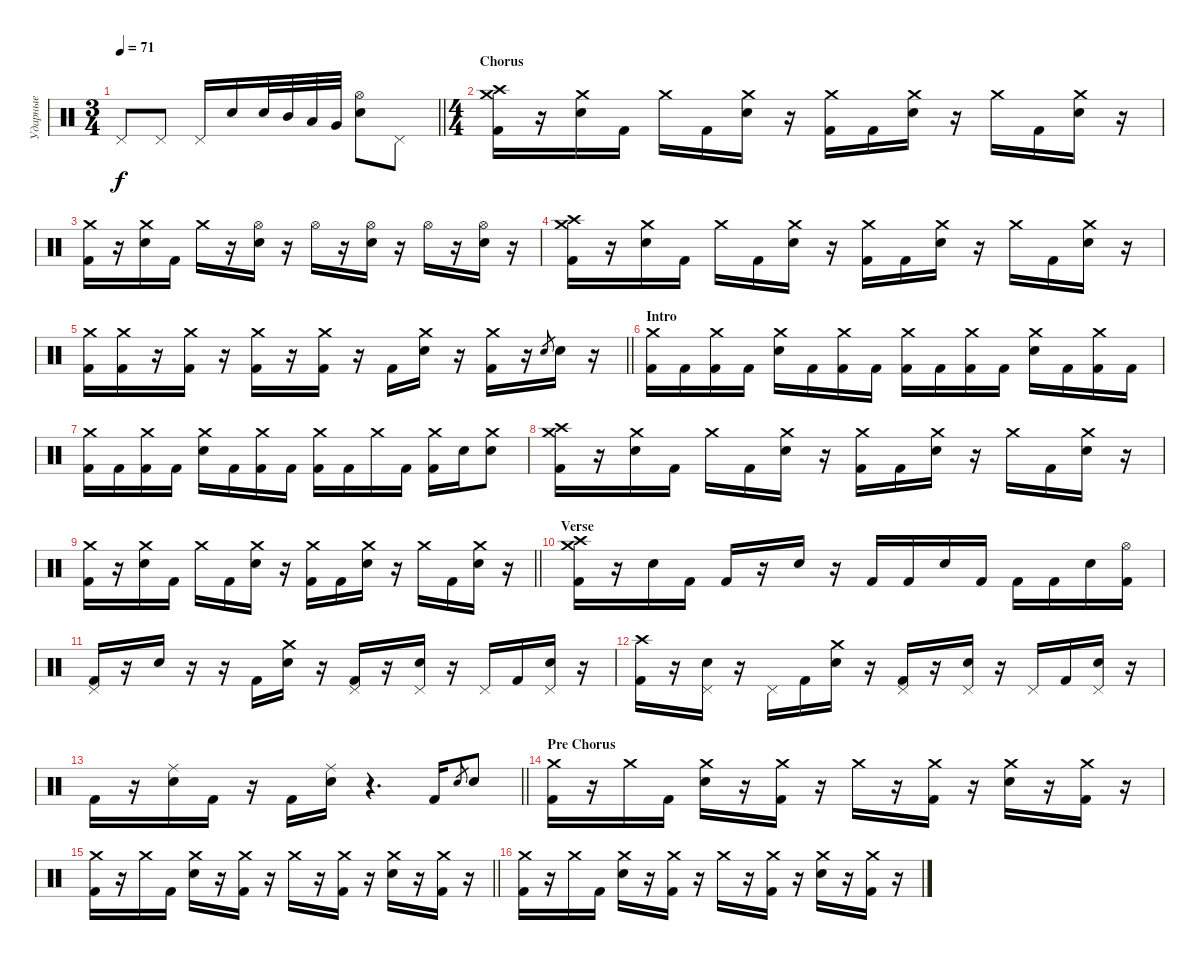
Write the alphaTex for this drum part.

\track ("Ударные" "Ударные") {instrument percussion}
\staff {score}
\articulation defaults
\ts (3 4)
\tempo 71
\clef neutral
\barLineRight lightlight
\ks c "Pedal Hi-Hat (hit)".8{dy f} "Pedal Hi-Hat (hit)".8 "Pedal Hi-Hat (hit)".16 "Electric Snare (hit)".16 "Electric Snare (hit)".32 "Mid Tom (hit)".32 "Low Tom (hit)".32 "Very Low Tom (hit)".32
("Hi-Hat (open)" "Electric Snare (hit)").8 "Pedal Hi-Hat (hit)".8 |
\ts (4 4)
\section ("" "Chorus")
("Crash medium (hit)" "Crash high (hit)" "Kick (hit) 2").16 r.16 ("Crash medium (hit)" "Electric Snare (hit)").16 "Kick (hit) 2".16 "Crash medium (hit)".16 "Kick (hit) 2".16 ("Crash medium (hit)" "Electric Snare (hit)").16 r.16 ("Crash medium (hit)" "Kick (hit) 2").16 "Kick (hit) 2".16 ("Crash medium (hit)" "Electric Snare (hit)").16 r.16 "Crash medium (hit)".16 "Kick (hit) 2".16 ("Crash medium (hit)" "Electric Snare (hit)").16 r.16 |
("Crash medium (hit)" "Kick (hit) 2").16 r.16 ("Crash medium (hit)" "Electric Snare (hit)").16 "Kick (hit) 2".16 "Crash medium (hit)".16 r.16 ("Hi-Hat (open)" "Electric Snare (hit)").16 r.16 "Hi-Hat (open)".16 r.16 ("Hi-Hat (open)" "Electric Snare (hit)").16 r.16 "Hi-Hat (open)".16 r.16 ("Hi-Hat (open)" "Electric Snare (hit)").16 r.16 |
("Crash medium (hit)" "Crash high (hit)" "Kick (hit) 2").16 r.16 ("Crash medium (hit)" "Electric Snare (hit)").16 "Kick (hit) 2".16 "Crash medium (hit)".16 "Kick (hit) 2".16 ("Crash medium (hit)" "Electric Snare (hit)").16 r.16 ("Crash medium (hit)" "Kick (hit) 2").16 "Kick (hit) 2".16 ("Crash medium (hit)" "Electric Snare (hit)").16 r.16 "Crash medium (hit)".16 "Kick (hit) 2".16 ("Crash medium (hit)" "Electric Snare (hit)").16 r.16 |
\barLineRight lightlight
("Crash medium (hit)" "Kick (hit) 2").16 ("Crash medium (hit)" "Kick (hit) 2").16 r.16 ("Crash medium (hit)" "Kick (hit) 2").16 r.16 ("Crash medium (hit)" "Kick (hit) 2").16 r.16 ("Crash medium (hit)" "Kick (hit) 2").16 r.16 "Kick (hit) 2".16 ("Crash medium (hit)" "Electric Snare (hit)").16 r.16 ("Crash medium (hit)" "Kick (hit) 2").16 r.16 "Electric Snare (hit)".8{gr} "Electric Snare (hit)".16 r.16 |
\section ("" "Intro")
("Crash medium (hit)" "Kick (hit) 2").16 "Kick (hit) 2".16 ("Crash medium (hit)" "Kick (hit) 2").16 "Kick (hit) 2".16 ("Crash medium (hit)" "Electric Snare (hit)").16 "Kick (hit) 2".16 ("Crash medium (hit)" "Kick (hit) 2").16 "Kick (hit) 2".16 ("Crash medium (hit)" "Kick (hit) 2").16 "Kick (hit) 2".16 ("Crash medium (hit)" "Kick (hit) 2").16 "Kick (hit) 2".16 ("Crash medium (hit)" "Electric Snare (hit)").16 "Kick (hit) 2".16 ("Crash medium (hit)" "Kick (hit) 2").16 "Kick (hit) 2".16 |
("Crash medium (hit)" "Kick (hit) 2").16 "Kick (hit) 2".16 ("Crash medium (hit)" "Kick (hit) 2").16 "Kick (hit) 2".16 ("Crash medium (hit)" "Electric Snare (hit)").16 "Kick (hit) 2".16 ("Crash medium (hit)" "Kick (hit) 2").16 "Kick (hit) 2".16 ("Crash medium (hit)" "Kick (hit) 2").16 "Kick (hit) 2".16 "Crash medium (hit)".16 "Kick (hit) 2".16 ("Crash medium (hit)" "Kick (hit) 2").16 "Electric Snare (hit)".16 ("Crash medium (hit)" "Electric Snare (hit)").8 |
("Crash medium (hit)" "Crash high (hit)" "Kick (hit) 2").16 r.16 ("Crash medium (hit)" "Electric Snare (hit)").16 "Kick (hit) 2".16 "Crash medium (hit)".16 "Kick (hit) 2".16 ("Crash medium (hit)" "Electric Snare (hit)").16 r.16 ("Crash medium (hit)" "Kick (hit) 2").16 "Kick (hit) 2".16 ("Crash medium (hit)" "Electric Snare (hit)").16 r.16 "Crash medium (hit)".16 "Kick (hit) 2".16 ("Crash medium (hit)" "Electric Snare (hit)").16 r.16 |
\barLineRight lightlight
("Crash medium (hit)" "Kick (hit) 2").16 r.16 ("Crash medium (hit)" "Electric Snare (hit)").16 "Kick (hit) 2".16 "Crash medium (hit)".16 "Kick (hit) 2".16 ("Crash medium (hit)" "Electric Snare (hit)").16 r.16 ("Crash medium (hit)" "Kick (hit) 2").16 "Kick (hit) 2".16 ("Crash medium (hit)" "Electric Snare (hit)").16 r.16 "Crash medium (hit)".16 "Kick (hit) 2".16 ("Crash medium (hit)" "Electric Snare (hit)").16 r.16 |
\section ("" "Verse")
("Crash medium (hit)" "Crash high (hit)" "Kick (hit) 2").16 r.16 "Electric Snare (hit)".16 "Kick (hit) 2".16 "Kick (hit) 2".16 r.16 "Electric Snare (hit)".16 r.16 "Kick (hit) 2".16 "Kick (hit) 2".16 "Electric Snare (hit)".16 "Kick (hit) 2".16 "Kick (hit) 2".16 "Kick (hit) 2".16 "Electric Snare (hit)".16 ("Hi-Hat (open)" "Kick (hit) 2").16 |
("Pedal Hi-Hat (hit)" "Kick (hit) 2").16 r.16 "Electric Snare (hit)".16 r.16 r.16 "Kick (hit) 2".16 ("Crash medium (hit)" "Electric Snare (hit)").16 r.16 ("Pedal Hi-Hat (hit)" "Kick (hit) 2").16 r.16 ("Pedal Hi-Hat (hit)" "Electric Snare (hit)").16 r.16 "Pedal Hi-Hat (hit)".16 "Kick (hit) 2".16 ("Pedal Hi-Hat (hit)" "Electric Snare (hit)").16 r.16 |
("Crash high (hit)" "Kick (hit) 2").16 r.16 ("Pedal Hi-Hat (hit)" "Electric Snare (hit)").16 r.16 "Pedal Hi-Hat (hit)".16 "Kick (hit) 2".16 ("Crash medium (hit)" "Electric Snare (hit)").16 r.16 ("Pedal Hi-Hat (hit)" "Kick (hit) 2").16 r.16 ("Pedal Hi-Hat (hit)" "Electric Snare (hit)").16 r.16 "Pedal Hi-Hat (hit)".16 "Kick (hit) 2".16 ("Pedal Hi-Hat (hit)" "Electric Snare (hit)").16 r.16 |
\barLineRight lightlight "Kick (hit) 2".16
r.16 ("Ride (middle)" "Electric Snare (hit)").16 "Kick (hit) 2".16 r.16 "Kick (hit) 2".16 ("Ride (middle)" "Electric Snare (hit)").16 r.4{d} "Kick (hit) 2".16 "Electric Snare (hit)".8{gr} "Electric Snare (hit)".8 |
\section ("" "Pre Chorus")
("Crash medium (hit)" "Kick (hit) 2").16 r.16 "Crash medium (hit)".16 "Kick (hit) 2".16 ("Crash medium (hit)" "Electric Snare (hit)").16 r.16 ("Crash medium (hit)" "Kick (hit) 2").16 r.16 "Crash medium (hit)".16 r.16 ("Crash medium (hit)" "Kick (hit) 2").16 r.16 ("Crash medium (hit)" "Electric Snare (hit)").16 r.16 ("Crash medium (hit)" "Kick (hit) 2").16 r.16 |
\barLineRight lightlight
("Crash medium (hit)" "Kick (hit) 2").16 r.16 "Crash medium (hit)".16 "Kick (hit) 2".16 ("Crash medium (hit)" "Electric Snare (hit)").16 r.16 ("Crash medium (hit)" "Kick (hit) 2").16 r.16 "Crash medium (hit)".16 r.16 ("Crash medium (hit)" "Kick (hit) 2").16 r.16 ("Crash medium (hit)" "Electric Snare (hit)").16 r.16 ("Crash medium (hit)" "Kick (hit) 2").16 r.16 |
("Crash medium (hit)" "Kick (hit) 2").16 r.16 "Crash medium (hit)".16 "Kick (hit) 2".16 ("Crash medium (hit)" "Electric Snare (hit)").16 r.16 ("Crash medium (hit)" "Kick (hit) 2").16 r.16 "Crash medium (hit)".16 r.16 ("Crash medium (hit)" "Kick (hit) 2").16 r.16 ("Crash medium (hit)" "Electric Snare (hit)").16 r.16 ("Crash medium (hit)" "Kick (hit) 2").16 r.16
